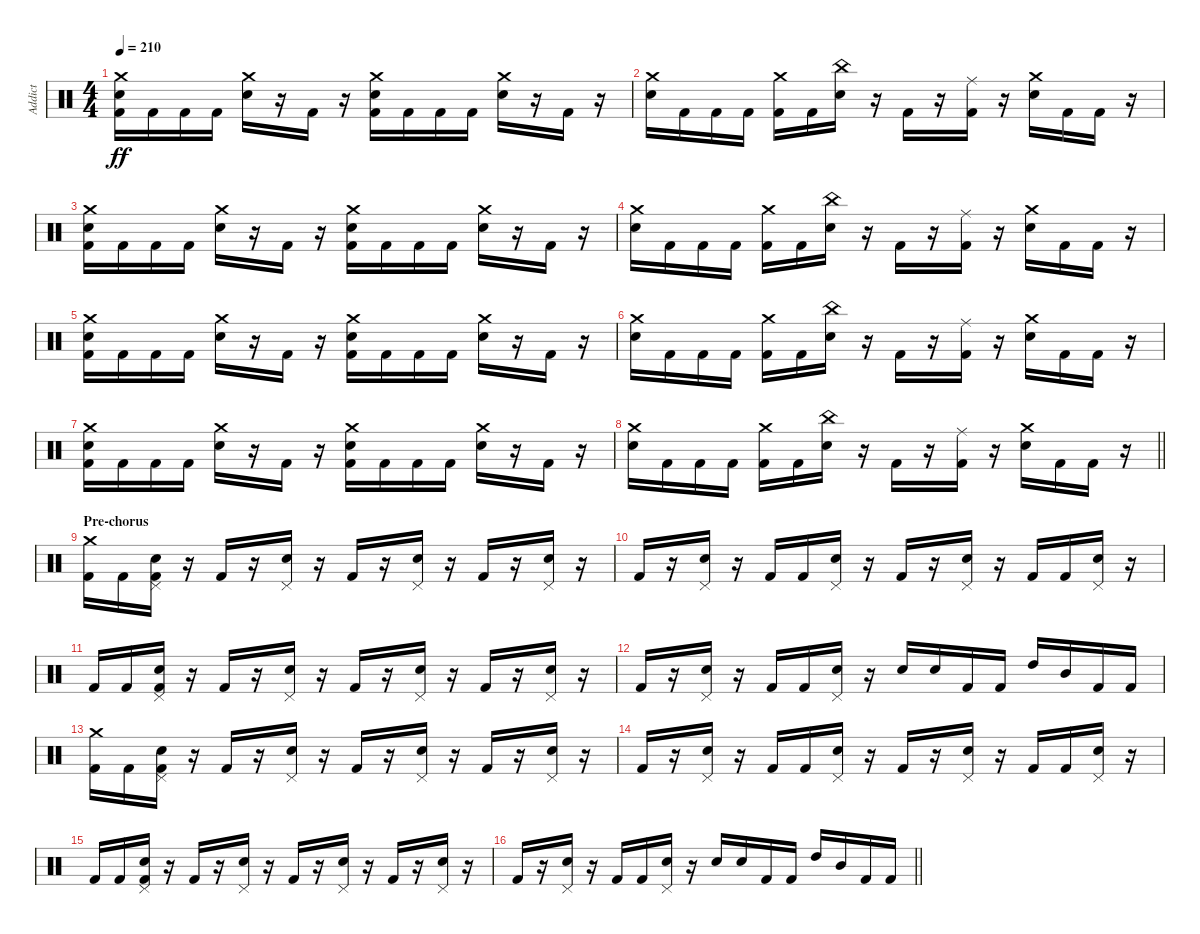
\track ("Addict" "Addict") {instrument percussion}
\staff {score}
\articulation defaults
\ts (4 4)
\tempo 210
\clef neutral
\ks c
("Kick (hit) 2" "Snare (hit) 2" "Crash medium (hit)").16{dy ff} "Kick (hit) 2".16 "Kick (hit) 2".16 "Kick (hit) 2".16 ("Snare (hit) 2" "Crash medium (hit)").16 r.16 "Kick (hit) 2".16 r.16 ("Kick (hit) 2" "Snare (hit) 2" "Crash medium (hit)").16 "Kick (hit) 2".16 "Kick (hit) 2".16 "Kick (hit) 2".16 ("Snare (hit) 2" "Crash medium (hit)").16 r.16 "Kick (hit) 2".16 r.16 |
("Snare (hit) 2" "Crash medium (hit)").16 "Kick (hit) 2".16 "Kick (hit) 2".16 "Kick (hit) 2".16 ("Kick (hit) 2" "Crash medium (hit)").16 "Kick (hit) 2".16 ("Snare (hit) 2" "China (hit)").16 r.16 "Kick (hit) 2".16 r.16 ("Kick (hit) 2" "Ride (middle)").16 r.16 ("Snare (hit) 2" "Crash medium (hit)").16 "Kick (hit) 2".16 "Kick (hit) 2".16 r.16 |
("Kick (hit) 2" "Snare (hit) 2" "Crash medium (hit)").16 "Kick (hit) 2".16 "Kick (hit) 2".16 "Kick (hit) 2".16 ("Snare (hit) 2" "Crash medium (hit)").16 r.16 "Kick (hit) 2".16 r.16 ("Kick (hit) 2" "Snare (hit) 2" "Crash medium (hit)").16 "Kick (hit) 2".16 "Kick (hit) 2".16 "Kick (hit) 2".16 ("Snare (hit) 2" "Crash medium (hit)").16 r.16 "Kick (hit) 2".16 r.16 |
("Snare (hit) 2" "Crash medium (hit)").16 "Kick (hit) 2".16 "Kick (hit) 2".16 "Kick (hit) 2".16 ("Kick (hit) 2" "Crash medium (hit)").16 "Kick (hit) 2".16 ("Snare (hit) 2" "China (hit)").16 r.16 "Kick (hit) 2".16 r.16 ("Kick (hit) 2" "Ride (middle)").16 r.16 ("Snare (hit) 2" "Crash medium (hit)").16 "Kick (hit) 2".16 "Kick (hit) 2".16 r.16 |
("Kick (hit) 2" "Snare (hit) 2" "Crash medium (hit)").16 "Kick (hit) 2".16 "Kick (hit) 2".16 "Kick (hit) 2".16 ("Snare (hit) 2" "Crash medium (hit)").16 r.16 "Kick (hit) 2".16 r.16 ("Kick (hit) 2" "Snare (hit) 2" "Crash medium (hit)").16 "Kick (hit) 2".16 "Kick (hit) 2".16 "Kick (hit) 2".16 ("Snare (hit) 2" "Crash medium (hit)").16 r.16 "Kick (hit) 2".16 r.16 |
("Snare (hit) 2" "Crash medium (hit)").16 "Kick (hit) 2".16 "Kick (hit) 2".16 "Kick (hit) 2".16 ("Kick (hit) 2" "Crash medium (hit)").16 "Kick (hit) 2".16 ("Snare (hit) 2" "China (hit)").16 r.16 "Kick (hit) 2".16 r.16 ("Kick (hit) 2" "Ride (middle)").16 r.16 ("Snare (hit) 2" "Crash medium (hit)").16 "Kick (hit) 2".16 "Kick (hit) 2".16 r.16 |
("Kick (hit) 2" "Snare (hit) 2" "Crash medium (hit)").16 "Kick (hit) 2".16 "Kick (hit) 2".16 "Kick (hit) 2".16 ("Snare (hit) 2" "Crash medium (hit)").16 r.16 "Kick (hit) 2".16 r.16 ("Kick (hit) 2" "Snare (hit) 2" "Crash medium (hit)").16 "Kick (hit) 2".16 "Kick (hit) 2".16 "Kick (hit) 2".16 ("Snare (hit) 2" "Crash medium (hit)").16 r.16 "Kick (hit) 2".16 r.16 |
\barLineRight lightlight
("Snare (hit) 2" "Crash medium (hit)").16 "Kick (hit) 2".16 "Kick (hit) 2".16 "Kick (hit) 2".16 ("Kick (hit) 2" "Crash medium (hit)").16 "Kick (hit) 2".16 ("Snare (hit) 2" "China (hit)").16 r.16 "Kick (hit) 2".16 r.16 ("Kick (hit) 2" "Ride (middle)").16 r.16 ("Snare (hit) 2" "Crash medium (hit)").16 "Kick (hit) 2".16 "Kick (hit) 2".16 r.16 |
\section ("" "Pre-chorus")
("Kick (hit) 2" "Crash medium (hit)").16 "Kick (hit) 2".16 ("Kick (hit) 2" "Snare (hit) 2" "Pedal Hi-Hat (hit)").16 r.16 "Kick (hit) 2".16 r.16 ("Snare (hit) 2" "Pedal Hi-Hat (hit)").16 r.16 "Kick (hit) 2".16 r.16 ("Snare (hit) 2" "Pedal Hi-Hat (hit)").16 r.16 "Kick (hit) 2".16 r.16 ("Snare (hit) 2" "Pedal Hi-Hat (hit)").16 r.16 |
"Kick (hit) 2".16 r.16 ("Snare (hit) 2" "Pedal Hi-Hat (hit)").16 r.16 "Kick (hit) 2".16 "Kick (hit) 2".16 ("Snare (hit) 2" "Pedal Hi-Hat (hit)").16 r.16 "Kick (hit) 2".16 r.16 ("Snare (hit) 2" "Pedal Hi-Hat (hit)").16 r.16 "Kick (hit) 2".16 "Kick (hit) 2".16 ("Snare (hit) 2" "Pedal Hi-Hat (hit)").16 r.16 |
"Kick (hit) 2".16 "Kick (hit) 2".16 ("Kick (hit) 2" "Snare (hit) 2" "Pedal Hi-Hat (hit)").16 r.16 "Kick (hit) 2".16 r.16 ("Snare (hit) 2" "Pedal Hi-Hat (hit)").16 r.16 "Kick (hit) 2".16 r.16 ("Snare (hit) 2" "Pedal Hi-Hat (hit)").16 r.16 "Kick (hit) 2".16 r.16 ("Snare (hit) 2" "Pedal Hi-Hat (hit)").16 r.16 |
"Kick (hit) 2".16 r.16 ("Snare (hit) 2" "Pedal Hi-Hat (hit)").16 r.16 "Kick (hit) 2".16 "Kick (hit) 2".16 ("Snare (hit) 2" "Pedal Hi-Hat (hit)").16 r.16 "Snare (hit) 2".16 "Snare (hit) 2".16 "Kick (hit) 2".16 "Kick (hit) 2".16 "High Tom (hit)".16 "Mid Tom (hit)".16 "Kick (hit) 2".16 "Kick (hit) 2".16 |
("Kick (hit) 2" "Crash medium (hit)").16 "Kick (hit) 2".16 ("Kick (hit) 2" "Snare (hit) 2" "Pedal Hi-Hat (hit)").16 r.16 "Kick (hit) 2".16 r.16 ("Snare (hit) 2" "Pedal Hi-Hat (hit)").16 r.16 "Kick (hit) 2".16 r.16 ("Snare (hit) 2" "Pedal Hi-Hat (hit)").16 r.16 "Kick (hit) 2".16 r.16 ("Snare (hit) 2" "Pedal Hi-Hat (hit)").16 r.16 |
"Kick (hit) 2".16 r.16 ("Snare (hit) 2" "Pedal Hi-Hat (hit)").16 r.16 "Kick (hit) 2".16 "Kick (hit) 2".16 ("Snare (hit) 2" "Pedal Hi-Hat (hit)").16 r.16 "Kick (hit) 2".16 r.16 ("Snare (hit) 2" "Pedal Hi-Hat (hit)").16 r.16 "Kick (hit) 2".16 "Kick (hit) 2".16 ("Snare (hit) 2" "Pedal Hi-Hat (hit)").16 r.16 |
"Kick (hit) 2".16 "Kick (hit) 2".16 ("Kick (hit) 2" "Snare (hit) 2" "Pedal Hi-Hat (hit)").16 r.16 "Kick (hit) 2".16 r.16 ("Snare (hit) 2" "Pedal Hi-Hat (hit)").16 r.16 "Kick (hit) 2".16 r.16 ("Snare (hit) 2" "Pedal Hi-Hat (hit)").16 r.16 "Kick (hit) 2".16 r.16 ("Snare (hit) 2" "Pedal Hi-Hat (hit)").16 r.16 |
\barLineRight lightlight "Kick (hit) 2".16
r.16 ("Snare (hit) 2" "Pedal Hi-Hat (hit)").16 r.16 "Kick (hit) 2".16 "Kick (hit) 2".16 ("Snare (hit) 2" "Pedal Hi-Hat (hit)").16 r.16 "Snare (hit) 2".16 "Snare (hit) 2".16 "Kick (hit) 2".16 "Kick (hit) 2".16 "High Tom (hit)".16 "Mid Tom (hit)".16 "Kick (hit) 2".16 "Kick (hit) 2".16
